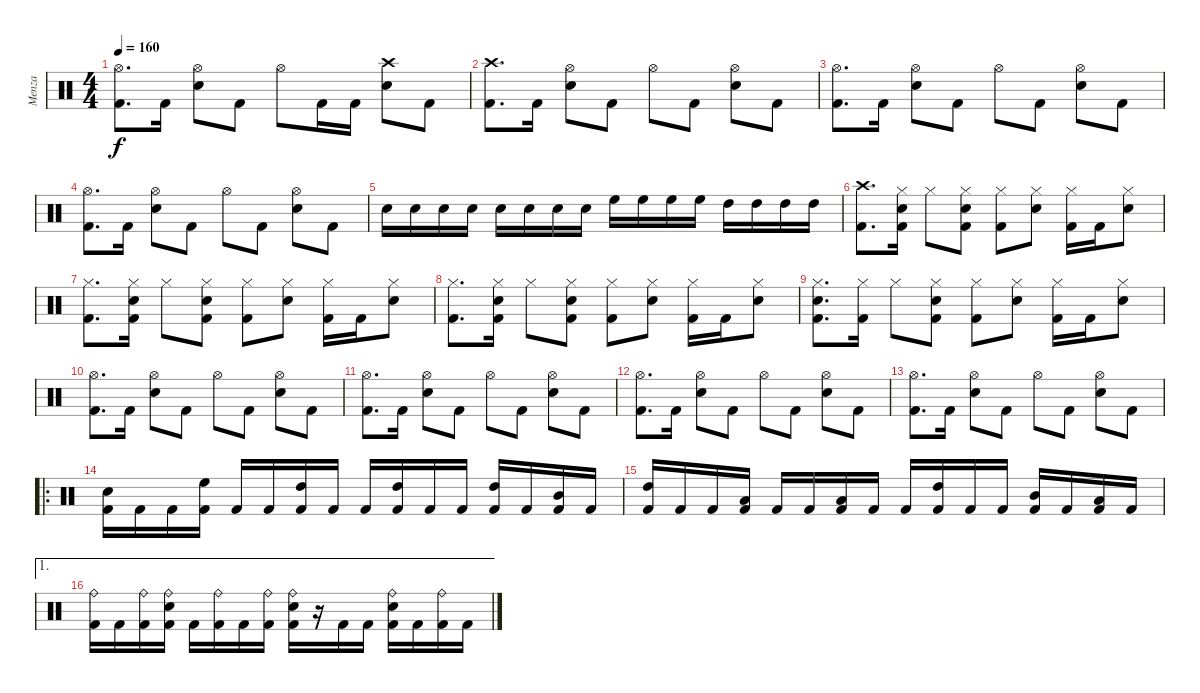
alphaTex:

\track ("Menza" "Menza") {instrument percussion}
\staff {score}
\articulation defaults
\ts (4 4)
\tempo 160
\clef neutral
\ks c
("Hi-Hat (open)" "Kick (hit) 2").8{d dy f} "Kick (hit) 2".16 ("Hi-Hat (open)" "Snare (hit) 2").8 "Kick (hit) 2".8 "Hi-Hat (open)".8 "Kick (hit) 2".16 "Kick (hit) 2".16 ("Crash high (hit)" "Snare (hit) 2").8 "Kick (hit) 2".8 |
("Crash high (hit)" "Kick (hit) 2").8{d} "Kick (hit) 2".16 ("Hi-Hat (open)" "Snare (hit) 2").8 "Kick (hit) 2".8 "Hi-Hat (open)".8 "Kick (hit) 2".8 ("Hi-Hat (open)" "Snare (hit) 2").8 "Kick (hit) 2".8 |
("Hi-Hat (open)" "Kick (hit) 2").8{d} "Kick (hit) 2".16 ("Hi-Hat (open)" "Snare (hit) 2").8 "Kick (hit) 2".8 "Hi-Hat (open)".8 "Kick (hit) 2".8 ("Hi-Hat (open)" "Snare (hit) 2").8 "Kick (hit) 2".8 |
("Hi-Hat (open)" "Kick (hit) 2").8{d} "Kick (hit) 2".16 ("Hi-Hat (open)" "Snare (hit) 2").8 "Kick (hit) 2".8 "Hi-Hat (open)".8 "Kick (hit) 2".8 ("Hi-Hat (open)" "Snare (hit) 2").8 "Kick (hit) 2".8 |
"Snare (hit) 2".16 "Snare (hit) 2".16 "Snare (hit) 2".16 "Snare (hit) 2".16 "Snare (hit) 2".16 "Snare (hit) 2".16 "Snare (hit) 2".16 "Snare (hit) 2".16 "High Floor Tom (hit)".16 "High Floor Tom (hit)".16 "High Floor Tom (hit)".16 "High Floor Tom (hit)".16 "High Tom (hit)".16 "High Tom (hit)".16 "High Tom (hit)".16 "High Tom (hit)".16 |
("Crash high (hit)" "Kick (hit) 2").8{d} ("Hi-Hat (closed)" "Snare (hit) 2" "Kick (hit) 2").16 "Hi-Hat (closed)".8 ("Hi-Hat (closed)" "Snare (hit) 2" "Kick (hit) 2").8 ("Hi-Hat (closed)" "Kick (hit) 2").8 ("Hi-Hat (closed)" "Snare (hit) 2").8 ("Hi-Hat (closed)" "Kick (hit) 2").16 "Kick (hit) 2".16 ("Hi-Hat (closed)" "Snare (hit) 2").8 |
("Hi-Hat (closed)" "Kick (hit) 2").8{d} ("Hi-Hat (closed)" "Snare (hit) 2" "Kick (hit) 2").16 "Hi-Hat (closed)".8 ("Hi-Hat (closed)" "Snare (hit) 2" "Kick (hit) 2").8 ("Hi-Hat (closed)" "Kick (hit) 2").8 ("Hi-Hat (closed)" "Snare (hit) 2").8 ("Hi-Hat (closed)" "Kick (hit) 2").16 "Kick (hit) 2".16 ("Hi-Hat (closed)" "Snare (hit) 2").8 |
("Hi-Hat (closed)" "Kick (hit) 2").8{d} ("Hi-Hat (closed)" "Snare (hit) 2" "Kick (hit) 2").16 "Hi-Hat (closed)".8 ("Hi-Hat (closed)" "Snare (hit) 2" "Kick (hit) 2").8 ("Hi-Hat (closed)" "Kick (hit) 2").8 ("Hi-Hat (closed)" "Snare (hit) 2").8 ("Hi-Hat (closed)" "Kick (hit) 2").16 "Kick (hit) 2".16 ("Hi-Hat (closed)" "Snare (hit) 2").8 |
("Hi-Hat (closed)" "Snare (hit) 2" "Kick (hit) 2").8{d} ("Hi-Hat (closed)" "Kick (hit) 2").16 "Hi-Hat (closed)".8 ("Hi-Hat (closed)" "Snare (hit) 2" "Kick (hit) 2").8 ("Hi-Hat (closed)" "Kick (hit) 2").8 ("Hi-Hat (closed)" "Snare (hit) 2").8 ("Hi-Hat (closed)" "Kick (hit) 2").16 "Kick (hit) 2".16 ("Hi-Hat (closed)" "Snare (hit) 2").8 |
("Hi-Hat (open)" "Kick (hit) 2").8{d} "Kick (hit) 2".16 ("Hi-Hat (open)" "Snare (hit) 2").8 "Kick (hit) 2".8 "Hi-Hat (open)".8 "Kick (hit) 2".8 ("Hi-Hat (open)" "Snare (hit) 2").8 "Kick (hit) 2".8 |
("Hi-Hat (open)" "Kick (hit) 2").8{d} "Kick (hit) 2".16 ("Hi-Hat (open)" "Snare (hit) 2").8 "Kick (hit) 2".8 "Hi-Hat (open)".8 "Kick (hit) 2".8 ("Hi-Hat (open)" "Snare (hit) 2").8 "Kick (hit) 2".8 |
("Hi-Hat (open)" "Kick (hit) 2").8{d} "Kick (hit) 2".16 ("Hi-Hat (open)" "Snare (hit) 2").8 "Kick (hit) 2".8 "Hi-Hat (open)".8 "Kick (hit) 2".8 ("Hi-Hat (open)" "Snare (hit) 2").8 "Kick (hit) 2".8 |
("Hi-Hat (open)" "Kick (hit) 2").8{d} "Kick (hit) 2".16 ("Hi-Hat (open)" "Snare (hit) 2").8 "Kick (hit) 2".8 "Hi-Hat (open)".8 "Kick (hit) 2".8 ("Hi-Hat (open)" "Snare (hit) 2").8 "Kick (hit) 2".8 |
\ro
("Snare (hit) 2" "Kick (hit) 2").16 "Kick (hit) 2".16 "Kick (hit) 2".16 ("High Floor Tom (hit)" "Kick (hit) 2").16 "Kick (hit) 2".16 "Kick (hit) 2".16 ("High Tom (hit)" "Kick (hit) 2").16 "Kick (hit) 2".16 "Kick (hit) 2".16 ("High Tom (hit)" "Kick (hit) 2").16 "Kick (hit) 2".16 "Kick (hit) 2".16 ("High Tom (hit)" "Kick (hit) 2").16 "Kick (hit) 2".16 ("Mid Tom (hit)" "Kick (hit) 2").16 "Kick (hit) 2".16 |
("High Tom (hit)" "Kick (hit) 2").16 "Kick (hit) 2".16 "Kick (hit) 2".16 ("Low Tom (hit)" "Kick (hit) 2").16 "Kick (hit) 2".16 "Kick (hit) 2".16 ("Low Tom (hit)" "Kick (hit) 2").16 "Kick (hit) 2".16 "Kick (hit) 2".16 ("High Tom (hit)" "Kick (hit) 2").16 "Kick (hit) 2".16 "Kick (hit) 2".16 ("Mid Tom (hit)" "Kick (hit) 2").16 "Kick (hit) 2".16 ("Low Tom (hit)" "Kick (hit) 2").16 "Kick (hit) 2".16 |
\ae 1
("Ride (bell)" "Kick (hit) 2").16 "Kick (hit) 2".16 ("Ride (bell)" "Kick (hit) 2").16 ("Ride (bell)" "Snare (hit) 2" "Kick (hit) 2").16 "Kick (hit) 2".16 ("Ride (bell)" "Kick (hit) 2").16 "Kick (hit) 2".16 ("Ride (bell)" "Kick (hit) 2").16 ("Ride (bell)" "Snare (hit) 2" "Kick (hit) 2").16 r.16 "Kick (hit) 2".16 "Kick (hit) 2".16 ("Ride (bell)" "Snare (hit) 2" "Kick (hit) 2").16 "Kick (hit) 2".16 ("Ride (bell)" "Kick (hit) 2").16 "Kick (hit) 2".16
